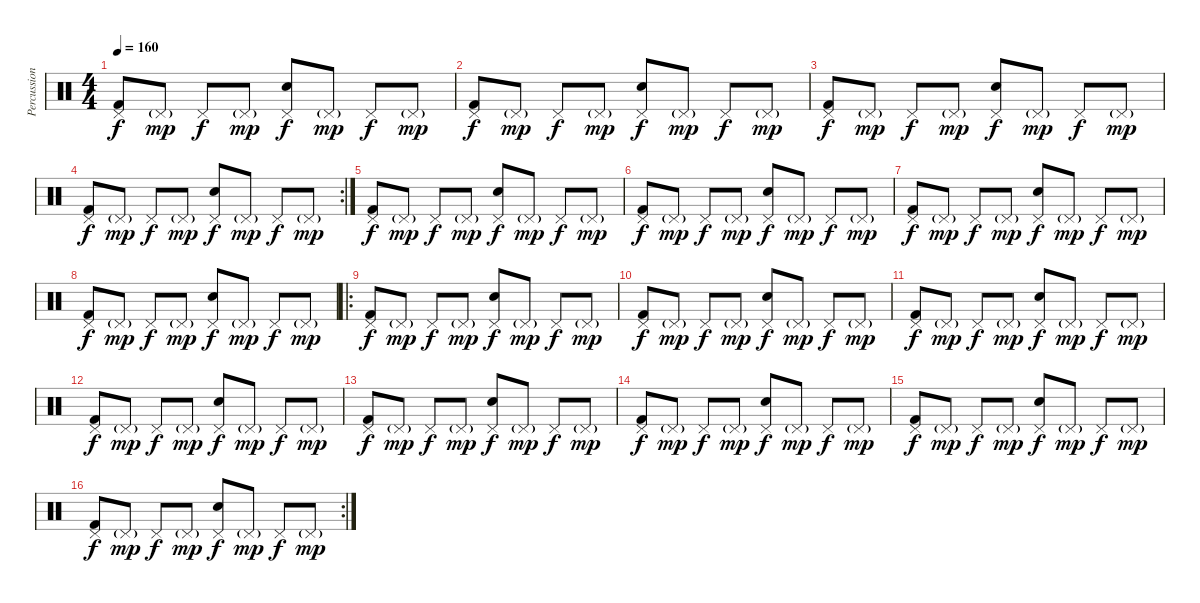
\track ("Percussion" "Percussion") {instrument percussion}
\staff {score}
\articulation defaults
\ts (4 4)
\tempo 160
\clef neutral
\ks c
("Pedal Hi-Hat (hit)" "Kick (hit) 2").8{dy f} "Pedal Hi-Hat (hit)"{g}.8{dy mp} "Pedal Hi-Hat (hit)".8{dy f} "Pedal Hi-Hat (hit)"{g}.8{dy mp} ("Pedal Hi-Hat (hit)" "Electric Snare (hit)").8{dy f} "Pedal Hi-Hat (hit)"{g}.8{dy mp} "Pedal Hi-Hat (hit)".8{dy f} "Pedal Hi-Hat (hit)"{g}.8{dy mp} |
("Pedal Hi-Hat (hit)" "Kick (hit) 2").8{dy f} "Pedal Hi-Hat (hit)"{g}.8{dy mp} "Pedal Hi-Hat (hit)".8{dy f} "Pedal Hi-Hat (hit)"{g}.8{dy mp} ("Pedal Hi-Hat (hit)" "Electric Snare (hit)").8{dy f} "Pedal Hi-Hat (hit)"{g}.8{dy mp} "Pedal Hi-Hat (hit)".8{dy f} "Pedal Hi-Hat (hit)"{g}.8{dy mp} |
("Pedal Hi-Hat (hit)" "Kick (hit) 2").8{dy f} "Pedal Hi-Hat (hit)"{g}.8{dy mp} "Pedal Hi-Hat (hit)".8{dy f} "Pedal Hi-Hat (hit)"{g}.8{dy mp} ("Pedal Hi-Hat (hit)" "Electric Snare (hit)").8{dy f} "Pedal Hi-Hat (hit)"{g}.8{dy mp} "Pedal Hi-Hat (hit)".8{dy f} "Pedal Hi-Hat (hit)"{g}.8{dy mp} |
\rc 2
("Pedal Hi-Hat (hit)" "Kick (hit) 2").8{dy f} "Pedal Hi-Hat (hit)"{g}.8{dy mp} "Pedal Hi-Hat (hit)".8{dy f} "Pedal Hi-Hat (hit)"{g}.8{dy mp} ("Pedal Hi-Hat (hit)" "Electric Snare (hit)").8{dy f} "Pedal Hi-Hat (hit)"{g}.8{dy mp} "Pedal Hi-Hat (hit)".8{dy f} "Pedal Hi-Hat (hit)"{g}.8{dy mp} |
("Pedal Hi-Hat (hit)" "Kick (hit) 2").8{dy f} "Pedal Hi-Hat (hit)"{g}.8{dy mp} "Pedal Hi-Hat (hit)".8{dy f} "Pedal Hi-Hat (hit)"{g}.8{dy mp} ("Pedal Hi-Hat (hit)" "Electric Snare (hit)").8{dy f} "Pedal Hi-Hat (hit)"{g}.8{dy mp} "Pedal Hi-Hat (hit)".8{dy f} "Pedal Hi-Hat (hit)"{g}.8{dy mp} |
("Pedal Hi-Hat (hit)" "Kick (hit) 2").8{dy f} "Pedal Hi-Hat (hit)"{g}.8{dy mp} "Pedal Hi-Hat (hit)".8{dy f} "Pedal Hi-Hat (hit)"{g}.8{dy mp} ("Pedal Hi-Hat (hit)" "Electric Snare (hit)").8{dy f} "Pedal Hi-Hat (hit)"{g}.8{dy mp} "Pedal Hi-Hat (hit)".8{dy f} "Pedal Hi-Hat (hit)"{g}.8{dy mp} |
("Pedal Hi-Hat (hit)" "Kick (hit) 2").8{dy f} "Pedal Hi-Hat (hit)"{g}.8{dy mp} "Pedal Hi-Hat (hit)".8{dy f} "Pedal Hi-Hat (hit)"{g}.8{dy mp} ("Pedal Hi-Hat (hit)" "Electric Snare (hit)").8{dy f} "Pedal Hi-Hat (hit)"{g}.8{dy mp} "Pedal Hi-Hat (hit)".8{dy f} "Pedal Hi-Hat (hit)"{g}.8{dy mp} |
("Pedal Hi-Hat (hit)" "Kick (hit) 2").8{dy f} "Pedal Hi-Hat (hit)"{g}.8{dy mp} "Pedal Hi-Hat (hit)".8{dy f} "Pedal Hi-Hat (hit)"{g}.8{dy mp} ("Pedal Hi-Hat (hit)" "Electric Snare (hit)").8{dy f} "Pedal Hi-Hat (hit)"{g}.8{dy mp} "Pedal Hi-Hat (hit)".8{dy f} "Pedal Hi-Hat (hit)"{g}.8{dy mp} |
\ro
("Pedal Hi-Hat (hit)" "Kick (hit) 2").8{dy f} "Pedal Hi-Hat (hit)"{g}.8{dy mp} "Pedal Hi-Hat (hit)".8{dy f} "Pedal Hi-Hat (hit)"{g}.8{dy mp} ("Pedal Hi-Hat (hit)" "Electric Snare (hit)").8{dy f} "Pedal Hi-Hat (hit)"{g}.8{dy mp} "Pedal Hi-Hat (hit)".8{dy f} "Pedal Hi-Hat (hit)"{g}.8{dy mp} |
("Pedal Hi-Hat (hit)" "Kick (hit) 2").8{dy f} "Pedal Hi-Hat (hit)"{g}.8{dy mp} "Pedal Hi-Hat (hit)".8{dy f} "Pedal Hi-Hat (hit)"{g}.8{dy mp} ("Pedal Hi-Hat (hit)" "Electric Snare (hit)").8{dy f} "Pedal Hi-Hat (hit)"{g}.8{dy mp} "Pedal Hi-Hat (hit)".8{dy f} "Pedal Hi-Hat (hit)"{g}.8{dy mp} |
("Pedal Hi-Hat (hit)" "Kick (hit) 2").8{dy f} "Pedal Hi-Hat (hit)"{g}.8{dy mp} "Pedal Hi-Hat (hit)".8{dy f} "Pedal Hi-Hat (hit)"{g}.8{dy mp} ("Pedal Hi-Hat (hit)" "Electric Snare (hit)").8{dy f} "Pedal Hi-Hat (hit)"{g}.8{dy mp} "Pedal Hi-Hat (hit)".8{dy f} "Pedal Hi-Hat (hit)"{g}.8{dy mp} |
("Pedal Hi-Hat (hit)" "Kick (hit) 2").8{dy f} "Pedal Hi-Hat (hit)"{g}.8{dy mp} "Pedal Hi-Hat (hit)".8{dy f} "Pedal Hi-Hat (hit)"{g}.8{dy mp} ("Pedal Hi-Hat (hit)" "Electric Snare (hit)").8{dy f} "Pedal Hi-Hat (hit)"{g}.8{dy mp} "Pedal Hi-Hat (hit)".8{dy f} "Pedal Hi-Hat (hit)"{g}.8{dy mp} |
("Pedal Hi-Hat (hit)" "Kick (hit) 2").8{dy f} "Pedal Hi-Hat (hit)"{g}.8{dy mp} "Pedal Hi-Hat (hit)".8{dy f} "Pedal Hi-Hat (hit)"{g}.8{dy mp} ("Pedal Hi-Hat (hit)" "Electric Snare (hit)").8{dy f} "Pedal Hi-Hat (hit)"{g}.8{dy mp} "Pedal Hi-Hat (hit)".8{dy f} "Pedal Hi-Hat (hit)"{g}.8{dy mp} |
("Pedal Hi-Hat (hit)" "Kick (hit) 2").8{dy f} "Pedal Hi-Hat (hit)"{g}.8{dy mp} "Pedal Hi-Hat (hit)".8{dy f} "Pedal Hi-Hat (hit)"{g}.8{dy mp} ("Pedal Hi-Hat (hit)" "Electric Snare (hit)").8{dy f} "Pedal Hi-Hat (hit)"{g}.8{dy mp} "Pedal Hi-Hat (hit)".8{dy f} "Pedal Hi-Hat (hit)"{g}.8{dy mp} |
("Pedal Hi-Hat (hit)" "Kick (hit) 2").8{dy f} "Pedal Hi-Hat (hit)"{g}.8{dy mp} "Pedal Hi-Hat (hit)".8{dy f} "Pedal Hi-Hat (hit)"{g}.8{dy mp} ("Pedal Hi-Hat (hit)" "Electric Snare (hit)").8{dy f} "Pedal Hi-Hat (hit)"{g}.8{dy mp} "Pedal Hi-Hat (hit)".8{dy f} "Pedal Hi-Hat (hit)"{g}.8{dy mp} |
\rc 2
("Pedal Hi-Hat (hit)" "Kick (hit) 2").8{dy f} "Pedal Hi-Hat (hit)"{g}.8{dy mp} "Pedal Hi-Hat (hit)".8{dy f} "Pedal Hi-Hat (hit)"{g}.8{dy mp} ("Pedal Hi-Hat (hit)" "Electric Snare (hit)").8{dy f} "Pedal Hi-Hat (hit)"{g}.8{dy mp} "Pedal Hi-Hat (hit)".8{dy f} "Pedal Hi-Hat (hit)"{g}.8{dy mp}
